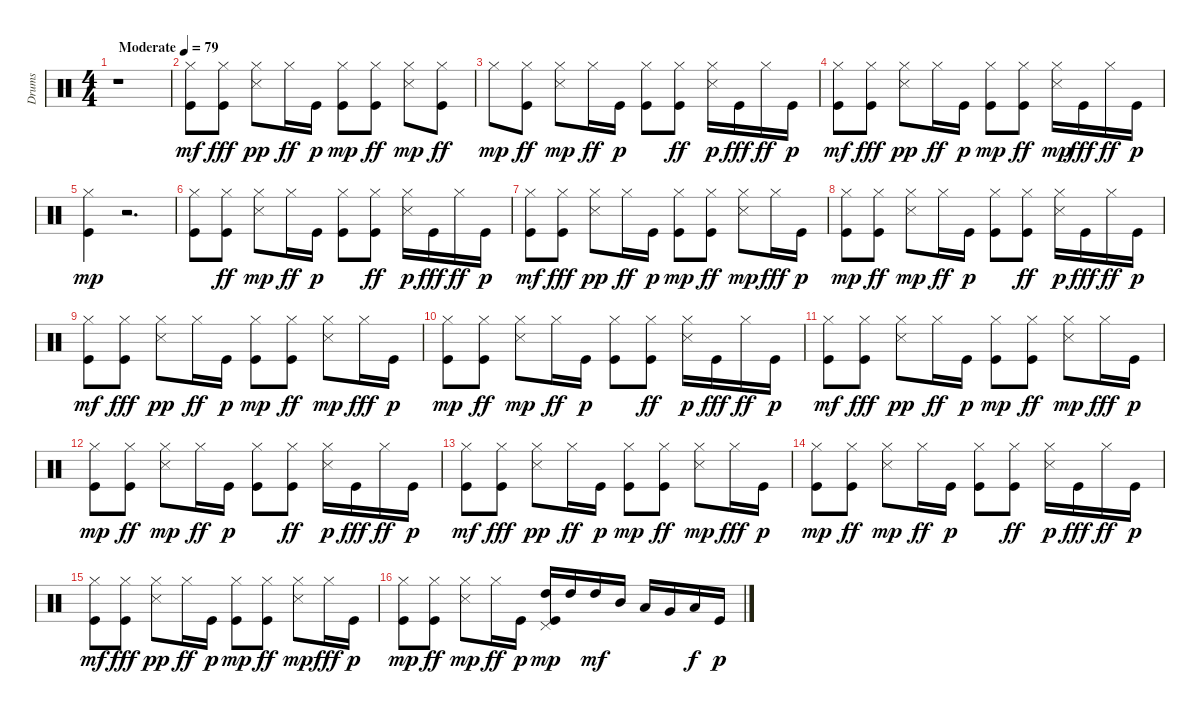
\track ("Drums" "Drums") {instrument percussion}
\staff {score}
\articulation defaults
\ts (4 4)
\tempo (79 "Moderate")
\clef neutral
\ks c
r.1{dy mf} |
("Kick (hit)" "Hi-Hat (closed)").8 ("Kick (hit)" "Hi-Hat (closed)").8{dy fff} ("Snare (side stick) 3" "Hi-Hat (closed)").8{dy pp} "Hi-Hat (closed)".16{dy ff} "Kick (hit)".16{dy p} ("Kick (hit)" "Hi-Hat (closed)").8{dy mp} ("Kick (hit)" "Hi-Hat (closed)").8{dy ff} ("Snare (side stick) 3" "Hi-Hat (closed)").8{dy mp} ("Kick (hit)" "Hi-Hat (closed)").8{dy ff} |
"Hi-Hat (closed)".8{dy mp} ("Kick (hit)" "Hi-Hat (closed)").8{dy ff} ("Snare (side stick) 3" "Hi-Hat (closed)").8{dy mp} "Hi-Hat (closed)".16{dy ff} "Kick (hit)".16{dy p} ("Kick (hit)" "Hi-Hat (closed)").8 ("Kick (hit)" "Hi-Hat (closed)").8{dy ff} ("Snare (side stick) 3" "Hi-Hat (closed)").16{dy p} "Kick (hit)".16{dy fff} "Hi-Hat (closed)".16{dy ff} "Kick (hit)".16{dy p} |
("Kick (hit)" "Hi-Hat (closed)").8{dy mf} ("Kick (hit)" "Hi-Hat (closed)").8{dy fff} ("Snare (side stick) 3" "Hi-Hat (closed)").8{dy pp} "Hi-Hat (closed)".16{dy ff} "Kick (hit)".16{dy p} ("Kick (hit)" "Hi-Hat (closed)").8{dy mp} ("Kick (hit)" "Hi-Hat (closed)").8{dy ff} ("Snare (side stick) 3" "Hi-Hat (closed)").16{dy mp} "Kick (hit)".16{dy fff} "Hi-Hat (closed)".16{dy ff} "Kick (hit)".16{dy p} |
("Kick (hit)" "Hi-Hat (closed)").4{dy mp} r.2{d} |
("Kick (hit)" "Hi-Hat (closed)").8 ("Kick (hit)" "Hi-Hat (closed)").8{dy ff} ("Snare (side stick) 3" "Hi-Hat (closed)").8{dy mp} "Hi-Hat (closed)".16{dy ff} "Kick (hit)".16{dy p} ("Kick (hit)" "Hi-Hat (closed)").8 ("Kick (hit)" "Hi-Hat (closed)").8{dy ff} ("Snare (side stick) 3" "Hi-Hat (closed)").16{dy p} "Kick (hit)".16{dy fff} "Hi-Hat (closed)".16{dy ff} "Kick (hit)".16{dy p} |
("Kick (hit)" "Hi-Hat (closed)").8{dy mf} ("Kick (hit)" "Hi-Hat (closed)").8{dy fff} ("Snare (side stick) 3" "Hi-Hat (closed)").8{dy pp} "Hi-Hat (closed)".16{dy ff} "Kick (hit)".16{dy p} ("Kick (hit)" "Hi-Hat (closed)").8{dy mp} ("Kick (hit)" "Hi-Hat (closed)").8{dy ff} ("Snare (side stick) 3" "Hi-Hat (closed)").8{dy mp} "Hi-Hat (closed)".16{dy fff} "Kick (hit)".16{dy p} |
("Kick (hit)" "Hi-Hat (closed)").8{dy mp} ("Kick (hit)" "Hi-Hat (closed)").8{dy ff} ("Snare (side stick) 3" "Hi-Hat (closed)").8{dy mp} "Hi-Hat (closed)".16{dy ff} "Kick (hit)".16{dy p} ("Kick (hit)" "Hi-Hat (closed)").8 ("Kick (hit)" "Hi-Hat (closed)").8{dy ff} ("Snare (side stick) 3" "Hi-Hat (closed)").16{dy p} "Kick (hit)".16{dy fff} "Hi-Hat (closed)".16{dy ff} "Kick (hit)".16{dy p} |
("Kick (hit)" "Hi-Hat (closed)").8{dy mf} ("Kick (hit)" "Hi-Hat (closed)").8{dy fff} ("Snare (side stick) 3" "Hi-Hat (closed)").8{dy pp} "Hi-Hat (closed)".16{dy ff} "Kick (hit)".16{dy p} ("Kick (hit)" "Hi-Hat (closed)").8{dy mp} ("Kick (hit)" "Hi-Hat (closed)").8{dy ff} ("Snare (side stick) 3" "Hi-Hat (closed)").8{dy mp} "Hi-Hat (closed)".16{dy fff} "Kick (hit)".16{dy p} |
("Kick (hit)" "Hi-Hat (closed)").8{dy mp} ("Kick (hit)" "Hi-Hat (closed)").8{dy ff} ("Snare (side stick) 3" "Hi-Hat (closed)").8{dy mp} "Hi-Hat (closed)".16{dy ff} "Kick (hit)".16{dy p} ("Kick (hit)" "Hi-Hat (closed)").8 ("Kick (hit)" "Hi-Hat (closed)").8{dy ff} ("Snare (side stick) 3" "Hi-Hat (closed)").16{dy p} "Kick (hit)".16{dy fff} "Hi-Hat (closed)".16{dy ff} "Kick (hit)".16{dy p} |
("Kick (hit)" "Hi-Hat (closed)").8{dy mf} ("Kick (hit)" "Hi-Hat (closed)").8{dy fff} ("Snare (side stick) 3" "Hi-Hat (closed)").8{dy pp} "Hi-Hat (closed)".16{dy ff} "Kick (hit)".16{dy p} ("Kick (hit)" "Hi-Hat (closed)").8{dy mp} ("Kick (hit)" "Hi-Hat (closed)").8{dy ff} ("Snare (side stick) 3" "Hi-Hat (closed)").8{dy mp} "Hi-Hat (closed)".16{dy fff} "Kick (hit)".16{dy p} |
("Kick (hit)" "Hi-Hat (closed)").8{dy mp} ("Kick (hit)" "Hi-Hat (closed)").8{dy ff} ("Snare (side stick) 3" "Hi-Hat (closed)").8{dy mp} "Hi-Hat (closed)".16{dy ff} "Kick (hit)".16{dy p} ("Kick (hit)" "Hi-Hat (closed)").8 ("Kick (hit)" "Hi-Hat (closed)").8{dy ff} ("Snare (side stick) 3" "Hi-Hat (closed)").16{dy p} "Kick (hit)".16{dy fff} "Hi-Hat (closed)".16{dy ff} "Kick (hit)".16{dy p} |
("Kick (hit)" "Hi-Hat (closed)").8{dy mf} ("Kick (hit)" "Hi-Hat (closed)").8{dy fff} ("Snare (side stick) 3" "Hi-Hat (closed)").8{dy pp} "Hi-Hat (closed)".16{dy ff} "Kick (hit)".16{dy p} ("Kick (hit)" "Hi-Hat (closed)").8{dy mp} ("Kick (hit)" "Hi-Hat (closed)").8{dy ff} ("Snare (side stick) 3" "Hi-Hat (closed)").8{dy mp} "Hi-Hat (closed)".16{dy fff} "Kick (hit)".16{dy p} |
("Kick (hit)" "Hi-Hat (closed)").8{dy mp} ("Kick (hit)" "Hi-Hat (closed)").8{dy ff} ("Snare (side stick) 3" "Hi-Hat (closed)").8{dy mp} "Hi-Hat (closed)".16{dy ff} "Kick (hit)".16{dy p} ("Kick (hit)" "Hi-Hat (closed)").8 ("Kick (hit)" "Hi-Hat (closed)").8{dy ff} ("Snare (side stick) 3" "Hi-Hat (closed)").16{dy p} "Kick (hit)".16{dy fff} "Hi-Hat (closed)".16{dy ff} "Kick (hit)".16{dy p} |
("Kick (hit)" "Hi-Hat (closed)").8{dy mf} ("Kick (hit)" "Hi-Hat (closed)").8{dy fff} ("Snare (side stick) 3" "Hi-Hat (closed)").8{dy pp} "Hi-Hat (closed)".16{dy ff} "Kick (hit)".16{dy p} ("Kick (hit)" "Hi-Hat (closed)").8{dy mp} ("Kick (hit)" "Hi-Hat (closed)").8{dy ff} ("Snare (side stick) 3" "Hi-Hat (closed)").8{dy mp} "Hi-Hat (closed)".16{dy fff} "Kick (hit)".16{dy p} |
("Kick (hit)" "Hi-Hat (closed)").8{dy mp} ("Kick (hit)" "Hi-Hat (closed)").8{dy ff} ("Snare (side stick) 3" "Hi-Hat (closed)").8{dy mp} "Hi-Hat (closed)".16{dy ff} "Kick (hit)".16{dy p} ("Kick (hit)" "Pedal Hi-Hat (hit)" "High Tom (hit)").16{dy mp} "High Tom (hit)".16 "High Tom (hit)".16{dy mf} "Mid Tom (hit)".16 "Low Tom (hit)".16 "Very Low Tom (hit)".16 "Low Floor Tom (hit)".16{dy f} "Kick (hit)".16{dy p}
